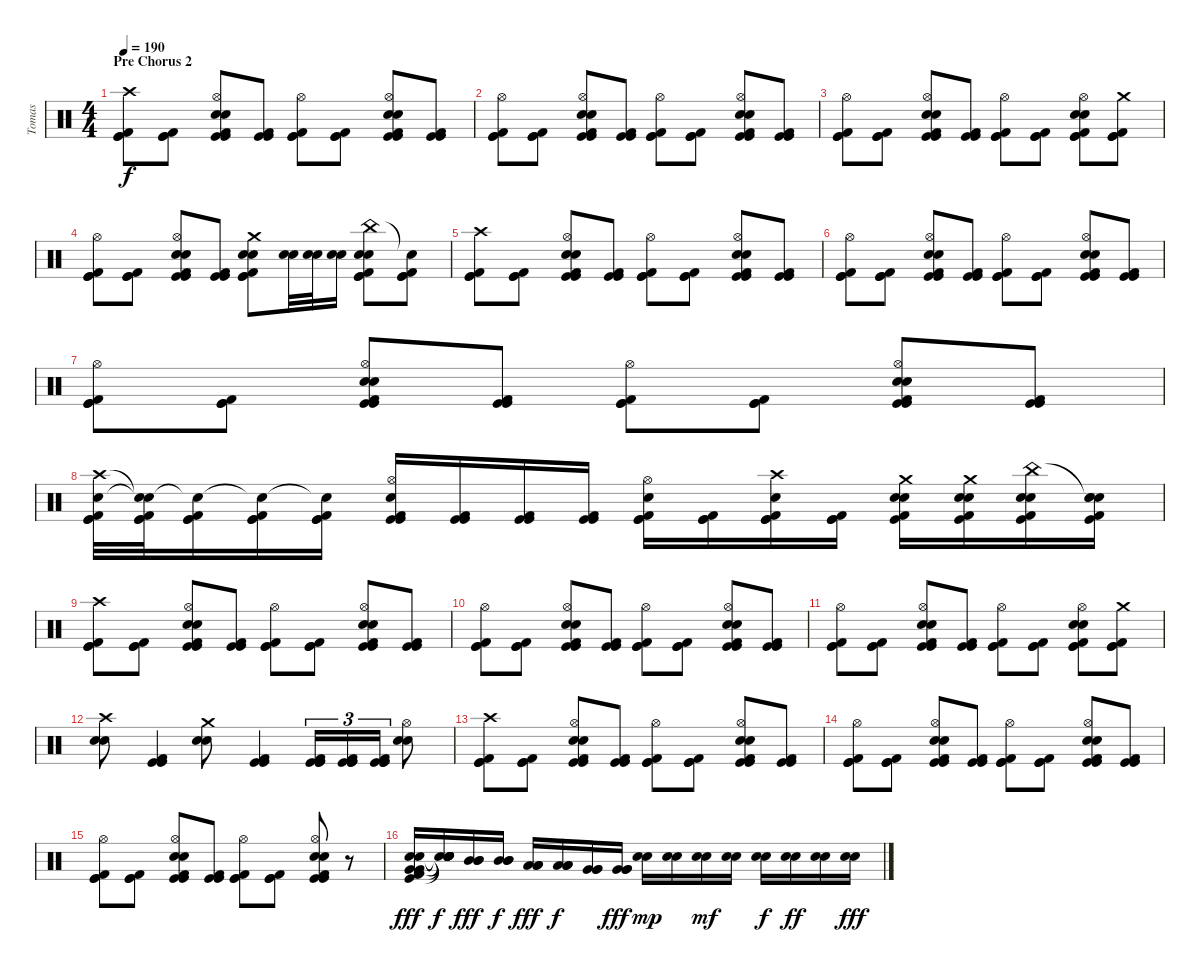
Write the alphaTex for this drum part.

\track ("Tomas" "Tomas") {instrument percussion}
\staff {score}
\articulation defaults
\ts (4 4)
\section ("" "Pre Chorus 2")
\tempo 190
\clef neutral
\ks c
("Crash high (hit)" "Kick (hit)" "Kick (hit)" "Kick (hit) 2").8{dy f} ("Kick (hit)" "Kick (hit)" "Kick (hit) 2").8 ("Hi-Hat (open)" "Electric Snare (hit)" "Electric Snare (hit)" "Kick (hit)" "Kick (hit)" "Kick (hit) 2").8 ("Kick (hit)" "Kick (hit)" "Kick (hit) 2").8 ("Hi-Hat (open)" "Kick (hit)" "Kick (hit)" "Kick (hit) 2").8 ("Kick (hit)" "Kick (hit)" "Kick (hit) 2").8 ("Hi-Hat (open)" "Electric Snare (hit)" "Electric Snare (hit)" "Kick (hit)" "Kick (hit)" "Kick (hit) 2").8 ("Kick (hit)" "Kick (hit)" "Kick (hit) 2").8 |
("Hi-Hat (open)" "Kick (hit)" "Kick (hit)" "Kick (hit) 2").8 ("Kick (hit)" "Kick (hit)" "Kick (hit) 2").8 ("Hi-Hat (open)" "Electric Snare (hit)" "Electric Snare (hit)" "Kick (hit)" "Kick (hit)" "Kick (hit) 2").8 ("Kick (hit)" "Kick (hit)" "Kick (hit) 2").8 ("Hi-Hat (open)" "Kick (hit)" "Kick (hit)" "Kick (hit) 2").8 ("Kick (hit)" "Kick (hit)" "Kick (hit) 2").8 ("Hi-Hat (open)" "Electric Snare (hit)" "Electric Snare (hit)" "Kick (hit)" "Kick (hit)" "Kick (hit) 2").8 ("Kick (hit)" "Kick (hit)" "Kick (hit) 2").8 |
("Hi-Hat (open)" "Kick (hit)" "Kick (hit)" "Kick (hit) 2").8 ("Kick (hit)" "Kick (hit)" "Kick (hit) 2").8 ("Hi-Hat (open)" "Electric Snare (hit)" "Electric Snare (hit)" "Kick (hit)" "Kick (hit)" "Kick (hit) 2").8 ("Kick (hit)" "Kick (hit)" "Kick (hit) 2").8 ("Hi-Hat (open)" "Kick (hit)" "Kick (hit)" "Kick (hit) 2").8 ("Kick (hit)" "Kick (hit)" "Kick (hit) 2").8 ("Hi-Hat (open)" "Electric Snare (hit)" "Electric Snare (hit)" "Kick (hit)" "Kick (hit)" "Kick (hit) 2").8 ("Crash medium (hit)" "Kick (hit)" "Kick (hit)" "Kick (hit) 2").8 |
("Hi-Hat (open)" "Kick (hit)" "Kick (hit)" "Kick (hit) 2").8 ("Kick (hit)" "Kick (hit)" "Kick (hit) 2").8 ("Hi-Hat (open)" "Electric Snare (hit)" "Electric Snare (hit)" "Kick (hit)" "Kick (hit)" "Kick (hit) 2").8 ("Kick (hit)" "Kick (hit)" "Kick (hit) 2").8 ("Crash medium (hit)" "Electric Snare (hit)" "Electric Snare (hit)" "Kick (hit)" "Kick (hit)" "Kick (hit) 2").8 ("Electric Snare (hit)" "Electric Snare (hit)").32 ("Electric Snare (hit)" "Electric Snare (hit)").32 ("Electric Snare (hit)" "Electric Snare (hit)").16 ("China (hit)" "Electric Snare (hit)" "Electric Snare (hit)" "Kick (hit)" "Kick (hit)" "Kick (hit) 2").8 ("Snare (hit)"{t} "Kick (hit)" "Kick (hit)" "Kick (hit) 2").8 |
("Crash high (hit)" "Kick (hit)" "Kick (hit)" "Kick (hit) 2").8 ("Kick (hit)" "Kick (hit)" "Kick (hit) 2").8 ("Hi-Hat (open)" "Electric Snare (hit)" "Electric Snare (hit)" "Kick (hit)" "Kick (hit)" "Kick (hit) 2").8 ("Kick (hit)" "Kick (hit)" "Kick (hit) 2").8 ("Hi-Hat (open)" "Kick (hit)" "Kick (hit)" "Kick (hit) 2").8 ("Kick (hit)" "Kick (hit)" "Kick (hit) 2").8 ("Hi-Hat (open)" "Electric Snare (hit)" "Electric Snare (hit)" "Kick (hit)" "Kick (hit)" "Kick (hit) 2").8 ("Kick (hit)" "Kick (hit)" "Kick (hit) 2").8 |
("Hi-Hat (open)" "Kick (hit)" "Kick (hit)" "Kick (hit) 2").8 ("Kick (hit)" "Kick (hit)" "Kick (hit) 2").8 ("Hi-Hat (open)" "Electric Snare (hit)" "Electric Snare (hit)" "Kick (hit)" "Kick (hit)" "Kick (hit) 2").8 ("Kick (hit)" "Kick (hit)" "Kick (hit) 2").8 ("Hi-Hat (open)" "Kick (hit)" "Kick (hit)" "Kick (hit) 2").8 ("Kick (hit)" "Kick (hit)" "Kick (hit) 2").8 ("Hi-Hat (open)" "Electric Snare (hit)" "Electric Snare (hit)" "Kick (hit)" "Kick (hit)" "Kick (hit) 2").8 ("Kick (hit)" "Kick (hit)" "Kick (hit) 2").8 |
("Hi-Hat (open)" "Kick (hit)" "Kick (hit)" "Kick (hit) 2").8 ("Kick (hit)" "Kick (hit)" "Kick (hit) 2").8 ("Hi-Hat (open)" "Electric Snare (hit)" "Electric Snare (hit)" "Kick (hit)" "Kick (hit)" "Kick (hit) 2").8 ("Kick (hit)" "Kick (hit)" "Kick (hit) 2").8 ("Hi-Hat (open)" "Kick (hit)" "Kick (hit)" "Kick (hit) 2").8 ("Kick (hit)" "Kick (hit)" "Kick (hit) 2").8 ("Hi-Hat (open)" "Electric Snare (hit)" "Electric Snare (hit)" "Kick (hit)" "Kick (hit)" "Kick (hit) 2").8 ("Kick (hit)" "Kick (hit)" "Kick (hit) 2").8 |
("Crash high (hit)" "Kick (hit)" "Electric Snare (hit)" "Kick (hit)" "Kick (hit) 2").32 ("Snare (hit)"{t} "Kick (hit)" "Snare (hit)"{t} "Kick (hit)" "Kick (hit) 2").32 ("Snare (hit)"{t} "Kick (hit)" "Kick (hit)" "Kick (hit) 2").16 ("Snare (hit)"{t} "Kick (hit)" "Kick (hit)" "Kick (hit) 2").16 ("Snare (hit)"{t} "Kick (hit)" "Kick (hit)" "Kick (hit) 2").16 ("Hi-Hat (open)" "Kick (hit)" "Electric Snare (hit)" "Kick (hit)" "Kick (hit) 2").16 ("Kick (hit)" "Kick (hit)" "Kick (hit) 2").16 ("Kick (hit)" "Kick (hit)" "Kick (hit) 2").16 ("Kick (hit)" "Kick (hit)" "Kick (hit) 2").16 ("Hi-Hat (open)" "Kick (hit)" "Electric Snare (hit)" "Kick (hit)" "Kick (hit) 2").16 ("Kick (hit)" "Kick (hit)" "Kick (hit) 2").16 ("Crash high (hit)" "Kick (hit)" "Electric Snare (hit)" "Kick (hit)" "Kick (hit) 2").16 ("Kick (hit)" "Kick (hit)" "Kick (hit) 2").16 ("Crash medium (hit)" "Kick (hit)" "Electric Snare (hit)" "Electric Snare (hit)" "Kick (hit) 2").16 ("Crash medium (hit)" "Kick (hit)" "Electric Snare (hit)" "Electric Snare (hit)" "Kick (hit) 2").16 ("China (hit)" "Kick (hit)" "Electric Snare (hit)" "Electric Snare (hit)" "Kick (hit) 2").16 ("Snare (hit)"{t} "Kick (hit)" "Electric Snare (hit)" "Electric Snare (hit)" "Kick (hit) 2").16 |
("Crash high (hit)" "Kick (hit)" "Kick (hit)" "Kick (hit) 2").8 ("Kick (hit)" "Kick (hit)" "Kick (hit) 2").8 ("Hi-Hat (open)" "Electric Snare (hit)" "Electric Snare (hit)" "Kick (hit)" "Kick (hit)" "Kick (hit) 2").8 ("Kick (hit)" "Kick (hit)" "Kick (hit) 2").8 ("Hi-Hat (open)" "Kick (hit)" "Kick (hit)" "Kick (hit) 2").8 ("Kick (hit)" "Kick (hit)" "Kick (hit) 2").8 ("Hi-Hat (open)" "Electric Snare (hit)" "Electric Snare (hit)" "Kick (hit)" "Kick (hit)" "Kick (hit) 2").8 ("Kick (hit)" "Kick (hit)" "Kick (hit) 2").8 |
("Hi-Hat (open)" "Kick (hit)" "Kick (hit)" "Kick (hit) 2").8 ("Kick (hit)" "Kick (hit)" "Kick (hit) 2").8 ("Hi-Hat (open)" "Electric Snare (hit)" "Electric Snare (hit)" "Kick (hit)" "Kick (hit)" "Kick (hit) 2").8 ("Kick (hit)" "Kick (hit)" "Kick (hit) 2").8 ("Hi-Hat (open)" "Kick (hit)" "Kick (hit)" "Kick (hit) 2").8 ("Kick (hit)" "Kick (hit)" "Kick (hit) 2").8 ("Hi-Hat (open)" "Electric Snare (hit)" "Electric Snare (hit)" "Kick (hit)" "Kick (hit)" "Kick (hit) 2").8 ("Kick (hit)" "Kick (hit)" "Kick (hit) 2").8 |
("Hi-Hat (open)" "Kick (hit)" "Kick (hit)" "Kick (hit) 2").8 ("Kick (hit)" "Kick (hit)" "Kick (hit) 2").8 ("Hi-Hat (open)" "Electric Snare (hit)" "Electric Snare (hit)" "Kick (hit)" "Kick (hit)" "Kick (hit) 2").8 ("Kick (hit)" "Kick (hit)" "Kick (hit) 2").8 ("Hi-Hat (open)" "Kick (hit)" "Kick (hit)" "Kick (hit) 2").8 ("Kick (hit)" "Kick (hit)" "Kick (hit) 2").8 ("Hi-Hat (open)" "Electric Snare (hit)" "Electric Snare (hit)" "Kick (hit)" "Kick (hit)" "Kick (hit) 2").8 ("Crash medium (hit)" "Kick (hit)" "Kick (hit)" "Kick (hit) 2").8 |
("Crash high (hit)" "Electric Snare (hit)" "Electric Snare (hit)").8 ("Kick (hit)" "Kick (hit)" "Kick (hit) 2").4 ("Crash medium (hit)" "Electric Snare (hit)" "Electric Snare (hit)").8 ("Kick (hit)" "Kick (hit)" "Kick (hit) 2").4 ("Kick (hit)" "Kick (hit)" "Kick (hit)" "Kick (hit) 2").16{tu (3 2)} ("Kick (hit)" "Kick (hit)" "Kick (hit)" "Kick (hit) 2").16{tu (3 2)} ("Kick (hit)" "Kick (hit)" "Kick (hit)" "Kick (hit) 2").16{tu (3 2)} ("Hi-Hat (open)" "Electric Snare (hit)" "Electric Snare (hit)").8 |
("Crash high (hit)" "Kick (hit)" "Kick (hit)" "Kick (hit) 2").8 ("Kick (hit)" "Kick (hit)" "Kick (hit) 2").8 ("Hi-Hat (open)" "Electric Snare (hit)" "Electric Snare (hit)" "Kick (hit)" "Kick (hit)" "Kick (hit) 2").8 ("Kick (hit)" "Kick (hit)" "Kick (hit) 2").8 ("Hi-Hat (open)" "Kick (hit)" "Kick (hit)" "Kick (hit) 2").8 ("Kick (hit)" "Kick (hit)" "Kick (hit) 2").8 ("Hi-Hat (open)" "Electric Snare (hit)" "Electric Snare (hit)" "Kick (hit)" "Kick (hit)" "Kick (hit) 2").8 ("Kick (hit)" "Kick (hit)" "Kick (hit) 2").8 |
("Hi-Hat (open)" "Kick (hit)" "Kick (hit)" "Kick (hit) 2").8 ("Kick (hit)" "Kick (hit)" "Kick (hit) 2").8 ("Hi-Hat (open)" "Electric Snare (hit)" "Electric Snare (hit)" "Kick (hit)" "Kick (hit)" "Kick (hit) 2").8 ("Kick (hit)" "Kick (hit)" "Kick (hit) 2").8 ("Hi-Hat (open)" "Kick (hit)" "Kick (hit)" "Kick (hit) 2").8 ("Kick (hit)" "Kick (hit)" "Kick (hit) 2").8 ("Hi-Hat (open)" "Electric Snare (hit)" "Electric Snare (hit)" "Kick (hit)" "Kick (hit)" "Kick (hit) 2").8 ("Kick (hit)" "Kick (hit)" "Kick (hit) 2").8 |
("Hi-Hat (open)" "Kick (hit)" "Kick (hit)" "Kick (hit) 2").8 ("Kick (hit)" "Kick (hit)" "Kick (hit) 2").8 ("Hi-Hat (open)" "Electric Snare (hit)" "Electric Snare (hit)" "Kick (hit)" "Kick (hit)" "Kick (hit) 2").8 ("Kick (hit)" "Kick (hit)" "Kick (hit) 2").8 ("Hi-Hat (open)" "Kick (hit)" "Kick (hit)" "Kick (hit) 2").8 ("Kick (hit)" "Kick (hit)" "Kick (hit) 2").8 ("Hi-Hat (open)" "Electric Snare (hit)" "Electric Snare (hit)" "Kick (hit)" "Kick (hit)" "Kick (hit) 2").8 r.8 |
("Very Low Tom (hit)" "Very Low Tom (hit)" "Kick (hit)" "Kick (hit) 2" "Electric Snare (hit)" "Electric Snare (hit)").16{dy fff} ("Snare (hit)"{t} "Snare (hit)"{t} "Snare (hit)"{t} "Snare (hit)"{t} "Electric Snare (hit)"{t} "Electric Snare (hit)"{t}).16{dy f} ("Mid Tom (hit)" "Mid Tom (hit)" "Mid Tom (hit)").16{dy fff} ("Mid Tom (hit)" "Mid Tom (hit)" "Mid Tom (hit)").16{dy f} ("Low Tom (hit)" "Low Tom (hit)" "Low Tom (hit)").16{dy fff} ("Low Tom (hit)" "Low Tom (hit)" "Low Tom (hit)").16{dy f} ("Very Low Tom (hit)" "Very Low Tom (hit)" "Very Low Tom (hit)").16 ("Very Low Tom (hit)" "Very Low Tom (hit)" "Very Low Tom (hit)").16{dy fff} ("Electric Snare (hit)" "Electric Snare (hit)").16{dy mp} ("Electric Snare (hit)" "Electric Snare (hit)").16 ("Electric Snare (hit)" "Electric Snare (hit)").16{dy mf} ("Electric Snare (hit)" "Electric Snare (hit)").16 ("Electric Snare (hit)" "Electric Snare (hit)").16{dy f} ("Electric Snare (hit)" "Electric Snare (hit)").16{dy ff} ("Electric Snare (hit)" "Electric Snare (hit)").16 ("Electric Snare (hit)" "Electric Snare (hit)").16{dy fff}
